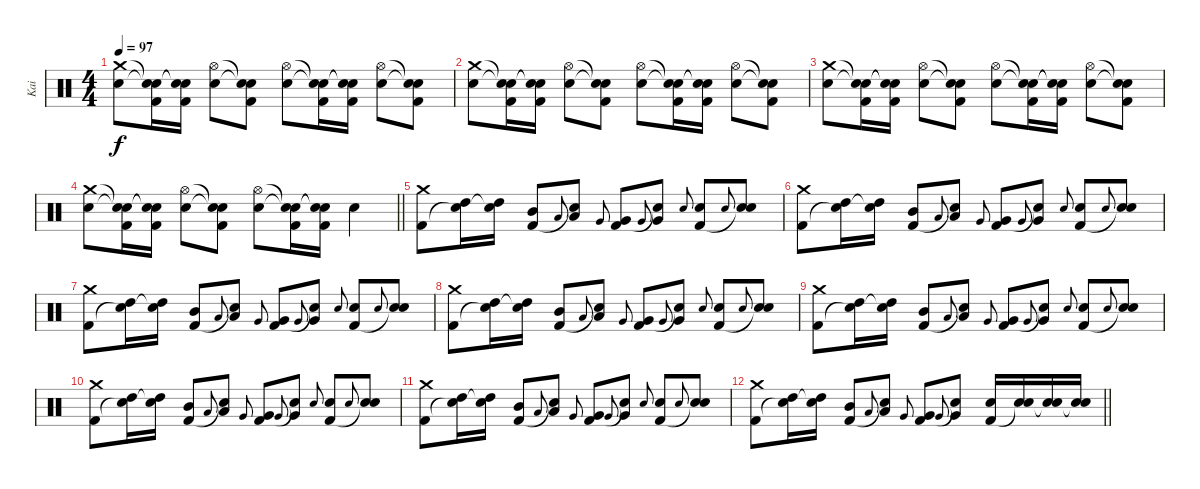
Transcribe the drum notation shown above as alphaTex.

\track ("Kai" "Kai") {instrument percussion}
\staff {score}
\articulation defaults
\ts (4 4)
\tempo 97
\clef neutral
\ks c
("Crash medium (hit)" "Snare (hit) 2").8{dy f} ("Snare (hit)"{t} "Snare (hit)"{t} "Kick (hit) 2").16 ("Snare (hit)"{t} "Snare (hit)"{t} "Kick (hit) 2").16 ("Hi-Hat (open)" "Snare (hit) 2").8 ("Snare (hit)"{t} "Snare (hit)"{t} "Kick (hit) 2").8 ("Hi-Hat (open)" "Snare (hit) 2").8 ("Snare (hit)"{t} "Snare (hit)"{t} "Kick (hit) 2").16 ("Snare (hit)"{t} "Snare (hit)"{t} "Kick (hit) 2").16 ("Hi-Hat (open)" "Snare (hit) 2").8 ("Snare (hit)"{t} "Snare (hit)"{t} "Kick (hit) 2").8 |
("Crash medium (hit)" "Snare (hit) 2").8 ("Snare (hit)"{t} "Snare (hit)"{t} "Kick (hit) 2").16 ("Snare (hit)"{t} "Snare (hit)"{t} "Kick (hit) 2").16 ("Hi-Hat (open)" "Snare (hit) 2").8 ("Snare (hit)"{t} "Snare (hit)"{t} "Kick (hit) 2").8 ("Hi-Hat (open)" "Snare (hit) 2").8 ("Snare (hit)"{t} "Snare (hit)"{t} "Kick (hit) 2").16 ("Snare (hit)"{t} "Snare (hit)"{t} "Kick (hit) 2").16 ("Hi-Hat (open)" "Snare (hit) 2").8 ("Snare (hit)"{t} "Snare (hit)"{t} "Kick (hit) 2").8 |
("Crash medium (hit)" "Snare (hit) 2").8 ("Snare (hit)"{t} "Snare (hit)"{t} "Kick (hit) 2").16 ("Snare (hit)"{t} "Snare (hit)"{t} "Kick (hit) 2").16 ("Hi-Hat (open)" "Snare (hit) 2").8 ("Snare (hit)"{t} "Snare (hit)"{t} "Kick (hit) 2").8 ("Hi-Hat (open)" "Snare (hit) 2").8 ("Snare (hit)"{t} "Snare (hit)"{t} "Kick (hit) 2").16 ("Snare (hit)"{t} "Snare (hit)"{t} "Kick (hit) 2").16 ("Hi-Hat (open)" "Snare (hit) 2").8 ("Snare (hit)"{t} "Snare (hit)"{t} "Kick (hit) 2").8 |
\barLineRight lightlight
("Crash medium (hit)" "Snare (hit) 2").8 ("Snare (hit)"{t} "Snare (hit)"{t} "Kick (hit) 2").16 ("Snare (hit)"{t} "Snare (hit)"{t} "Kick (hit) 2").16 ("Hi-Hat (open)" "Snare (hit) 2").8 ("Snare (hit)"{t} "Snare (hit)"{t} "Kick (hit) 2").8 ("Hi-Hat (open)" "Snare (hit) 2").8 ("Snare (hit)"{t} "Snare (hit)"{t} "Kick (hit) 2").16 ("Snare (hit)"{t} "Snare (hit)"{t} "Kick (hit) 2").16 "Snare (hit) 2".4 |
("Crash medium (hit)" "Kick (hit) 2").8 ("High Tom (hit)" "Snare (hit)"{t}).16 ("High Tom (hit)" "Snare (hit)"{t}).16 ("Mid Tom (hit)" "Kick (hit) 2").8 "Low Tom (hit)".8{gr onbeat} ("Low Tom (hit)" "Snare (hit)"{t}).8 "Very Low Tom (hit)".8{gr onbeat} ("Very Low Tom (hit)" "Kick (hit) 2").8 "Very Low Tom (hit)".8{gr onbeat} ("Very Low Tom (hit)" "Snare (hit)"{t}).8 "Snare (hit) 2".8{gr onbeat} ("Snare (hit) 2" "Kick (hit) 2").8 "Snare (hit) 2".8{gr onbeat} ("Snare (hit) 2" "Snare (hit)"{t}).8 |
("Crash medium (hit)" "Kick (hit) 2").8 ("High Tom (hit)" "Snare (hit)"{t}).16 ("High Tom (hit)" "Snare (hit)"{t}).16 ("Mid Tom (hit)" "Kick (hit) 2").8 "Low Tom (hit)".8{gr onbeat} ("Low Tom (hit)" "Snare (hit)"{t}).8 "Very Low Tom (hit)".8{gr onbeat} ("Very Low Tom (hit)" "Kick (hit) 2").8 "Very Low Tom (hit)".8{gr onbeat} ("Very Low Tom (hit)" "Snare (hit)"{t}).8 "Snare (hit) 2".8{gr onbeat} ("Snare (hit) 2" "Kick (hit) 2").8 "Snare (hit) 2".8{gr onbeat} ("Snare (hit) 2" "Snare (hit)"{t}).8 |
("Crash medium (hit)" "Kick (hit) 2").8 ("High Tom (hit)" "Snare (hit)"{t}).16 ("High Tom (hit)" "Snare (hit)"{t}).16 ("Mid Tom (hit)" "Kick (hit) 2").8 "Low Tom (hit)".8{gr onbeat} ("Low Tom (hit)" "Snare (hit)"{t}).8 "Very Low Tom (hit)".8{gr onbeat} ("Very Low Tom (hit)" "Kick (hit) 2").8 "Very Low Tom (hit)".8{gr onbeat} ("Very Low Tom (hit)" "Snare (hit)"{t}).8 "Snare (hit) 2".8{gr onbeat} ("Snare (hit) 2" "Kick (hit) 2").8 "Snare (hit) 2".8{gr onbeat} ("Snare (hit) 2" "Snare (hit)"{t}).8 |
("Crash medium (hit)" "Kick (hit) 2").8 ("High Tom (hit)" "Snare (hit)"{t}).16 ("High Tom (hit)" "Snare (hit)"{t}).16 ("Mid Tom (hit)" "Kick (hit) 2").8 "Low Tom (hit)".8{gr onbeat} ("Low Tom (hit)" "Snare (hit)"{t}).8 "Very Low Tom (hit)".8{gr onbeat} ("Very Low Tom (hit)" "Kick (hit) 2").8 "Very Low Tom (hit)".8{gr onbeat} ("Very Low Tom (hit)" "Snare (hit)"{t}).8 "Snare (hit) 2".8{gr onbeat} ("Snare (hit) 2" "Kick (hit) 2").8 "Snare (hit) 2".8{gr onbeat} ("Snare (hit) 2" "Snare (hit)"{t}).8 |
("Crash medium (hit)" "Kick (hit) 2").8 ("High Tom (hit)" "Snare (hit)"{t}).16 ("High Tom (hit)" "Snare (hit)"{t}).16 ("Mid Tom (hit)" "Kick (hit) 2").8 "Low Tom (hit)".8{gr onbeat} ("Low Tom (hit)" "Snare (hit)"{t}).8 "Very Low Tom (hit)".8{gr onbeat} ("Very Low Tom (hit)" "Kick (hit) 2").8 "Very Low Tom (hit)".8{gr onbeat} ("Very Low Tom (hit)" "Snare (hit)"{t}).8 "Snare (hit) 2".8{gr onbeat} ("Snare (hit) 2" "Kick (hit) 2").8 "Snare (hit) 2".8{gr onbeat} ("Snare (hit) 2" "Snare (hit)"{t}).8 |
("Crash medium (hit)" "Kick (hit) 2").8 ("High Tom (hit)" "Snare (hit)"{t}).16 ("High Tom (hit)" "Snare (hit)"{t}).16 ("Mid Tom (hit)" "Kick (hit) 2").8 "Low Tom (hit)".8{gr onbeat} ("Low Tom (hit)" "Snare (hit)"{t}).8 "Very Low Tom (hit)".8{gr onbeat} ("Very Low Tom (hit)" "Kick (hit) 2").8 "Very Low Tom (hit)".8{gr onbeat} ("Very Low Tom (hit)" "Snare (hit)"{t}).8 "Snare (hit) 2".8{gr onbeat} ("Snare (hit) 2" "Kick (hit) 2").8 "Snare (hit) 2".8{gr onbeat} ("Snare (hit) 2" "Snare (hit)"{t}).8 |
("Crash medium (hit)" "Kick (hit) 2").8 ("High Tom (hit)" "Snare (hit)"{t}).16 ("High Tom (hit)" "Snare (hit)"{t}).16 ("Mid Tom (hit)" "Kick (hit) 2").8 "Low Tom (hit)".8{gr onbeat} ("Low Tom (hit)" "Snare (hit)"{t}).8 "Very Low Tom (hit)".8{gr onbeat} ("Very Low Tom (hit)" "Kick (hit) 2").8 "Very Low Tom (hit)".8{gr onbeat} ("Very Low Tom (hit)" "Snare (hit)"{t}).8 "Snare (hit) 2".8{gr onbeat} ("Snare (hit) 2" "Kick (hit) 2").8 "Snare (hit) 2".8{gr onbeat} ("Snare (hit) 2" "Snare (hit)"{t}).8 |
\barLineRight lightlight
("Crash medium (hit)" "Kick (hit) 2").8 ("High Tom (hit)" "Snare (hit)"{t}).16 ("High Tom (hit)" "Snare (hit)"{t}).16 ("Mid Tom (hit)" "Kick (hit) 2").8 "Low Tom (hit)".8{gr onbeat} ("Low Tom (hit)" "Snare (hit)"{t}).8 "Very Low Tom (hit)".8{gr onbeat} ("Very Low Tom (hit)" "Kick (hit) 2").8 "Very Low Tom (hit)".8{gr onbeat} ("Very Low Tom (hit)" "Snare (hit)"{t}).8 ("Snare (hit) 2" "Kick (hit) 2").16 ("Snare (hit) 2" "Snare (hit)"{t}).16 ("Snare (hit) 2" "Snare (hit)"{t}).16 ("Snare (hit) 2" "Snare (hit)"{t}).16
